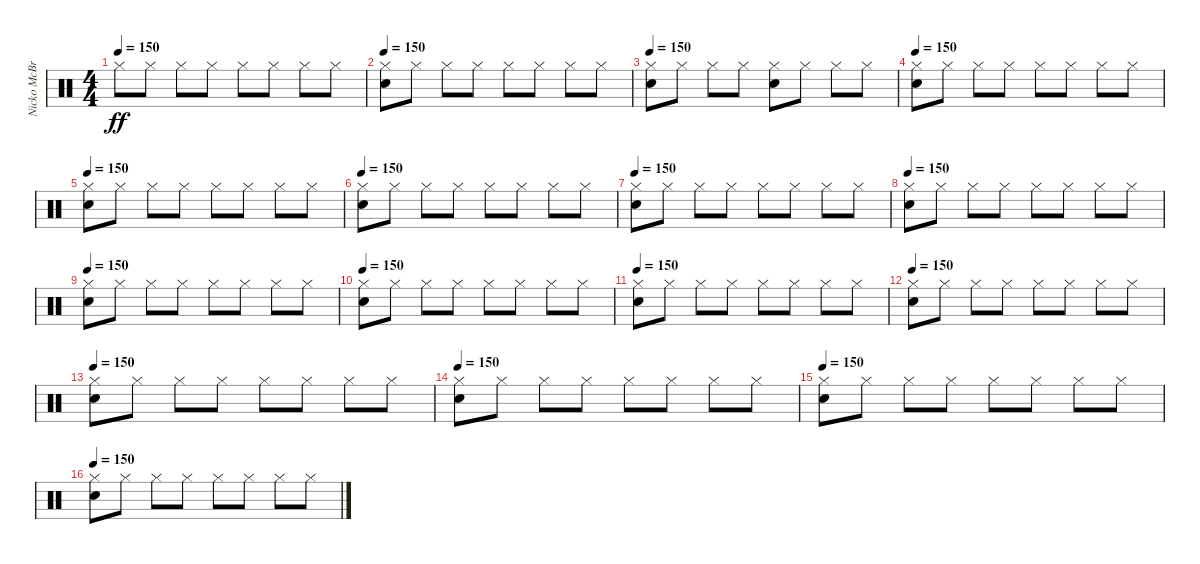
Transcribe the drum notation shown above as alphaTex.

\track ("Nicko McBrain" "Nicko McBr") {instrument percussion}
\staff {score}
\articulation defaults
\ts (4 4)
\tempo 150
\clef neutral
\ks c "Hi-Hat (closed)".8{dy ff} "Hi-Hat (closed)".8 "Hi-Hat (closed)".8 "Hi-Hat (closed)".8 "Hi-Hat (closed)".8 "Hi-Hat (closed)".8 "Hi-Hat (closed)".8 "Hi-Hat (closed)".8
|
\tempo 150
("Snare (hit) 2" "Hi-Hat (closed)").8 "Hi-Hat (closed)".8 "Hi-Hat (closed)".8 "Hi-Hat (closed)".8 "Hi-Hat (closed)".8 "Hi-Hat (closed)".8 "Hi-Hat (closed)".8 "Hi-Hat (closed)".8 |
\tempo 150
("Snare (hit) 2" "Hi-Hat (closed)").8 "Hi-Hat (closed)".8 "Hi-Hat (closed)".8 "Hi-Hat (closed)".8 ("Snare (hit) 2" "Hi-Hat (closed)").8 "Hi-Hat (closed)".8 "Hi-Hat (closed)".8 "Hi-Hat (closed)".8 |
\tempo 150
("Snare (hit) 2" "Hi-Hat (closed)").8 "Hi-Hat (closed)".8 "Hi-Hat (closed)".8 "Hi-Hat (closed)".8 "Hi-Hat (closed)".8 "Hi-Hat (closed)".8 "Hi-Hat (closed)".8 "Hi-Hat (closed)".8 |
\tempo 150
("Snare (hit) 2" "Hi-Hat (closed)").8 "Hi-Hat (closed)".8 "Hi-Hat (closed)".8 "Hi-Hat (closed)".8 "Hi-Hat (closed)".8 "Hi-Hat (closed)".8 "Hi-Hat (closed)".8 "Hi-Hat (closed)".8 |
\tempo 150
("Snare (hit) 2" "Hi-Hat (closed)").8 "Hi-Hat (closed)".8 "Hi-Hat (closed)".8 "Hi-Hat (closed)".8 "Hi-Hat (closed)".8 "Hi-Hat (closed)".8 "Hi-Hat (closed)".8 "Hi-Hat (closed)".8 |
\tempo 150
("Snare (hit) 2" "Hi-Hat (closed)").8 "Hi-Hat (closed)".8 "Hi-Hat (closed)".8 "Hi-Hat (closed)".8 "Hi-Hat (closed)".8 "Hi-Hat (closed)".8 "Hi-Hat (closed)".8 "Hi-Hat (closed)".8 |
\tempo 150
("Snare (hit) 2" "Hi-Hat (closed)").8 "Hi-Hat (closed)".8 "Hi-Hat (closed)".8 "Hi-Hat (closed)".8 "Hi-Hat (closed)".8 "Hi-Hat (closed)".8 "Hi-Hat (closed)".8 "Hi-Hat (closed)".8 |
\tempo 150
("Snare (hit) 2" "Hi-Hat (closed)").8 "Hi-Hat (closed)".8 "Hi-Hat (closed)".8 "Hi-Hat (closed)".8 "Hi-Hat (closed)".8 "Hi-Hat (closed)".8 "Hi-Hat (closed)".8 "Hi-Hat (closed)".8 |
\tempo 150
("Snare (hit) 2" "Hi-Hat (closed)").8 "Hi-Hat (closed)".8 "Hi-Hat (closed)".8 "Hi-Hat (closed)".8 "Hi-Hat (closed)".8 "Hi-Hat (closed)".8 "Hi-Hat (closed)".8 "Hi-Hat (closed)".8 |
\tempo 150
("Snare (hit) 2" "Hi-Hat (closed)").8 "Hi-Hat (closed)".8 "Hi-Hat (closed)".8 "Hi-Hat (closed)".8 "Hi-Hat (closed)".8 "Hi-Hat (closed)".8 "Hi-Hat (closed)".8 "Hi-Hat (closed)".8 |
\tempo 150
("Snare (hit) 2" "Hi-Hat (closed)").8 "Hi-Hat (closed)".8 "Hi-Hat (closed)".8 "Hi-Hat (closed)".8 "Hi-Hat (closed)".8 "Hi-Hat (closed)".8 "Hi-Hat (closed)".8 "Hi-Hat (closed)".8 |
\tempo 150
("Snare (hit) 2" "Hi-Hat (closed)").8 "Hi-Hat (closed)".8 "Hi-Hat (closed)".8 "Hi-Hat (closed)".8 "Hi-Hat (closed)".8 "Hi-Hat (closed)".8 "Hi-Hat (closed)".8 "Hi-Hat (closed)".8 |
\tempo 150
("Snare (hit) 2" "Hi-Hat (closed)").8 "Hi-Hat (closed)".8 "Hi-Hat (closed)".8 "Hi-Hat (closed)".8 "Hi-Hat (closed)".8 "Hi-Hat (closed)".8 "Hi-Hat (closed)".8 "Hi-Hat (closed)".8 |
\tempo 150
("Snare (hit) 2" "Hi-Hat (closed)").8 "Hi-Hat (closed)".8 "Hi-Hat (closed)".8 "Hi-Hat (closed)".8 "Hi-Hat (closed)".8 "Hi-Hat (closed)".8 "Hi-Hat (closed)".8 "Hi-Hat (closed)".8 |
\tempo 150
("Snare (hit) 2" "Hi-Hat (closed)").8 "Hi-Hat (closed)".8 "Hi-Hat (closed)".8 "Hi-Hat (closed)".8 "Hi-Hat (closed)".8 "Hi-Hat (closed)".8 "Hi-Hat (closed)".8 "Hi-Hat (closed)".8
